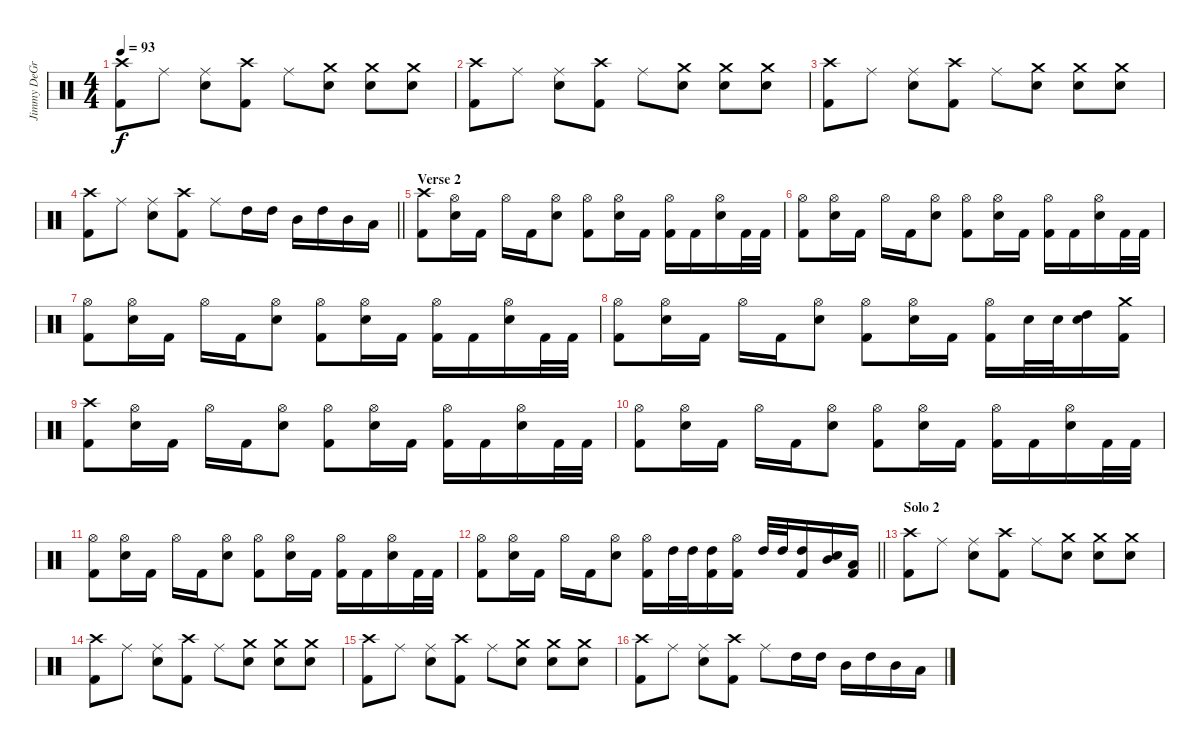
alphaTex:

\track ("Jimmy DeGrasso" "Jimmy DeGr") {instrument percussion}
\staff {score}
\articulation defaults
\ts (4 4)
\tempo 93
\clef neutral
\ks c
("Crash high (hit)" "Kick (hit) 2").8{dy f} "Ride (middle)".8 ("Ride (middle)" "Electric Snare (hit)").8 ("Crash high (hit)" "Kick (hit) 2").8 "Ride (middle)".8 ("Crash medium (hit)" "Electric Snare (hit)").8 ("Crash medium (hit)" "Electric Snare (hit)").8 ("Crash medium (hit)" "Electric Snare (hit)").8 |
("Crash high (hit)" "Kick (hit) 2").8 "Ride (middle)".8 ("Ride (middle)" "Electric Snare (hit)").8 ("Crash high (hit)" "Kick (hit) 2").8 "Ride (middle)".8 ("Crash medium (hit)" "Electric Snare (hit)").8 ("Crash medium (hit)" "Electric Snare (hit)").8 ("Crash medium (hit)" "Electric Snare (hit)").8 |
("Crash high (hit)" "Kick (hit) 2").8 "Ride (middle)".8 ("Ride (middle)" "Electric Snare (hit)").8 ("Crash high (hit)" "Kick (hit) 2").8 "Ride (middle)".8 ("Crash medium (hit)" "Electric Snare (hit)").8 ("Crash medium (hit)" "Electric Snare (hit)").8 ("Crash medium (hit)" "Electric Snare (hit)").8 |
\barLineRight lightlight
("Crash high (hit)" "Kick (hit) 2").8 "Ride (middle)".8 ("Ride (middle)" "Electric Snare (hit)").8 ("Crash high (hit)" "Kick (hit) 2").8 "Ride (middle)".8 "High Tom (hit)".16 "High Tom (hit)".16 "Mid Tom (hit)".16 "High Tom (hit)".16 "Mid Tom (hit)".16 "Low Tom (hit)".16 |
\section ("" "Verse 2")
("Crash high (hit)" "Kick (hit) 2").8 ("Hi-Hat (open)" "Electric Snare (hit)").16 "Kick (hit) 2".16 "Hi-Hat (open)".16 "Kick (hit) 2".16 ("Hi-Hat (open)" "Electric Snare (hit)").8 ("Hi-Hat (open)" "Kick (hit) 2").8 ("Hi-Hat (open)" "Electric Snare (hit)").16 "Kick (hit) 2".16 ("Hi-Hat (open)" "Kick (hit) 2").16 "Kick (hit) 2".16 ("Hi-Hat (open)" "Electric Snare (hit)").16 "Kick (hit) 2".32 "Kick (hit) 2".32 |
("Hi-Hat (open)" "Kick (hit) 2").8 ("Hi-Hat (open)" "Electric Snare (hit)").16 "Kick (hit) 2".16 "Hi-Hat (open)".16 "Kick (hit) 2".16 ("Hi-Hat (open)" "Electric Snare (hit)").8 ("Hi-Hat (open)" "Kick (hit) 2").8 ("Hi-Hat (open)" "Electric Snare (hit)").16 "Kick (hit) 2".16 ("Hi-Hat (open)" "Kick (hit) 2").16 "Kick (hit) 2".16 ("Hi-Hat (open)" "Electric Snare (hit)").16 "Kick (hit) 2".32 "Kick (hit) 2".32 |
("Hi-Hat (open)" "Kick (hit) 2").8 ("Hi-Hat (open)" "Electric Snare (hit)").16 "Kick (hit) 2".16 "Hi-Hat (open)".16 "Kick (hit) 2".16 ("Hi-Hat (open)" "Electric Snare (hit)").8 ("Hi-Hat (open)" "Kick (hit) 2").8 ("Hi-Hat (open)" "Electric Snare (hit)").16 "Kick (hit) 2".16 ("Hi-Hat (open)" "Kick (hit) 2").16 "Kick (hit) 2".16 ("Hi-Hat (open)" "Electric Snare (hit)").16 "Kick (hit) 2".32 "Kick (hit) 2".32 |
("Hi-Hat (open)" "Kick (hit) 2").8 ("Hi-Hat (open)" "Electric Snare (hit)").16 "Kick (hit) 2".16 "Hi-Hat (open)".16 "Kick (hit) 2".16 ("Hi-Hat (open)" "Electric Snare (hit)").8 ("Hi-Hat (open)" "Kick (hit) 2").8 ("Hi-Hat (open)" "Electric Snare (hit)").16 "Kick (hit) 2".16 ("Hi-Hat (open)" "Kick (hit) 2").16 "Electric Snare (hit)".32 "Electric Snare (hit)".32 ("High Tom (hit)" "Electric Snare (hit)").16 ("Crash medium (hit)" "Kick (hit) 2").16 |
("Crash high (hit)" "Kick (hit) 2").8 ("Hi-Hat (open)" "Electric Snare (hit)").16 "Kick (hit) 2".16 "Hi-Hat (open)".16 "Kick (hit) 2".16 ("Hi-Hat (open)" "Electric Snare (hit)").8 ("Hi-Hat (open)" "Kick (hit) 2").8 ("Hi-Hat (open)" "Electric Snare (hit)").16 "Kick (hit) 2".16 ("Hi-Hat (open)" "Kick (hit) 2").16 "Kick (hit) 2".16 ("Hi-Hat (open)" "Electric Snare (hit)").16 "Kick (hit) 2".32 "Kick (hit) 2".32 |
("Hi-Hat (open)" "Kick (hit) 2").8 ("Hi-Hat (open)" "Electric Snare (hit)").16 "Kick (hit) 2".16 "Hi-Hat (open)".16 "Kick (hit) 2".16 ("Hi-Hat (open)" "Electric Snare (hit)").8 ("Hi-Hat (open)" "Kick (hit) 2").8 ("Hi-Hat (open)" "Electric Snare (hit)").16 "Kick (hit) 2".16 ("Hi-Hat (open)" "Kick (hit) 2").16 "Kick (hit) 2".16 ("Hi-Hat (open)" "Electric Snare (hit)").16 "Kick (hit) 2".32 "Kick (hit) 2".32 |
("Hi-Hat (open)" "Kick (hit) 2").8 ("Hi-Hat (open)" "Electric Snare (hit)").16 "Kick (hit) 2".16 "Hi-Hat (open)".16 "Kick (hit) 2".16 ("Hi-Hat (open)" "Electric Snare (hit)").8 ("Hi-Hat (open)" "Kick (hit) 2").8 ("Hi-Hat (open)" "Electric Snare (hit)").16 "Kick (hit) 2".16 ("Hi-Hat (open)" "Kick (hit) 2").16 "Kick (hit) 2".16 ("Hi-Hat (open)" "Electric Snare (hit)").16 "Kick (hit) 2".32 "Kick (hit) 2".32 |
\barLineRight lightlight
("Hi-Hat (open)" "Kick (hit) 2").8 ("Hi-Hat (open)" "Electric Snare (hit)").16 "Kick (hit) 2".16 "Hi-Hat (open)".16 "Kick (hit) 2".16 ("Hi-Hat (open)" "Electric Snare (hit)").8 ("Hi-Hat (open)" "Kick (hit) 2").16 "High Tom (hit)".32 "High Tom (hit)".32 ("High Tom (hit)" "Kick (hit) 2").16 ("Hi-Hat (open)" "Kick (hit) 2").16 "High Tom (hit)".32 "High Tom (hit)".32 ("High Tom (hit)" "Kick (hit) 2").16 ("Mid Tom (hit)" "Electric Snare (hit)").16 ("Low Tom (hit)" "Kick (hit) 2").16 |
\section ("" "Solo 2")
("Crash high (hit)" "Kick (hit) 2").8 "Ride (middle)".8 ("Ride (middle)" "Electric Snare (hit)").8 ("Crash high (hit)" "Kick (hit) 2").8 "Ride (middle)".8 ("Crash medium (hit)" "Electric Snare (hit)").8 ("Crash medium (hit)" "Electric Snare (hit)").8 ("Crash medium (hit)" "Electric Snare (hit)").8 |
("Crash high (hit)" "Kick (hit) 2").8 "Ride (middle)".8 ("Ride (middle)" "Electric Snare (hit)").8 ("Crash high (hit)" "Kick (hit) 2").8 "Ride (middle)".8 ("Crash medium (hit)" "Electric Snare (hit)").8 ("Crash medium (hit)" "Electric Snare (hit)").8 ("Crash medium (hit)" "Electric Snare (hit)").8 |
("Crash high (hit)" "Kick (hit) 2").8 "Ride (middle)".8 ("Ride (middle)" "Electric Snare (hit)").8 ("Crash high (hit)" "Kick (hit) 2").8 "Ride (middle)".8 ("Crash medium (hit)" "Electric Snare (hit)").8 ("Crash medium (hit)" "Electric Snare (hit)").8 ("Crash medium (hit)" "Electric Snare (hit)").8 |
("Crash high (hit)" "Kick (hit) 2").8 "Ride (middle)".8 ("Ride (middle)" "Electric Snare (hit)").8 ("Crash high (hit)" "Kick (hit) 2").8 "Ride (middle)".8 "High Tom (hit)".16 "High Tom (hit)".16 "Mid Tom (hit)".16 "High Tom (hit)".16 "Mid Tom (hit)".16 "Low Tom (hit)".16
